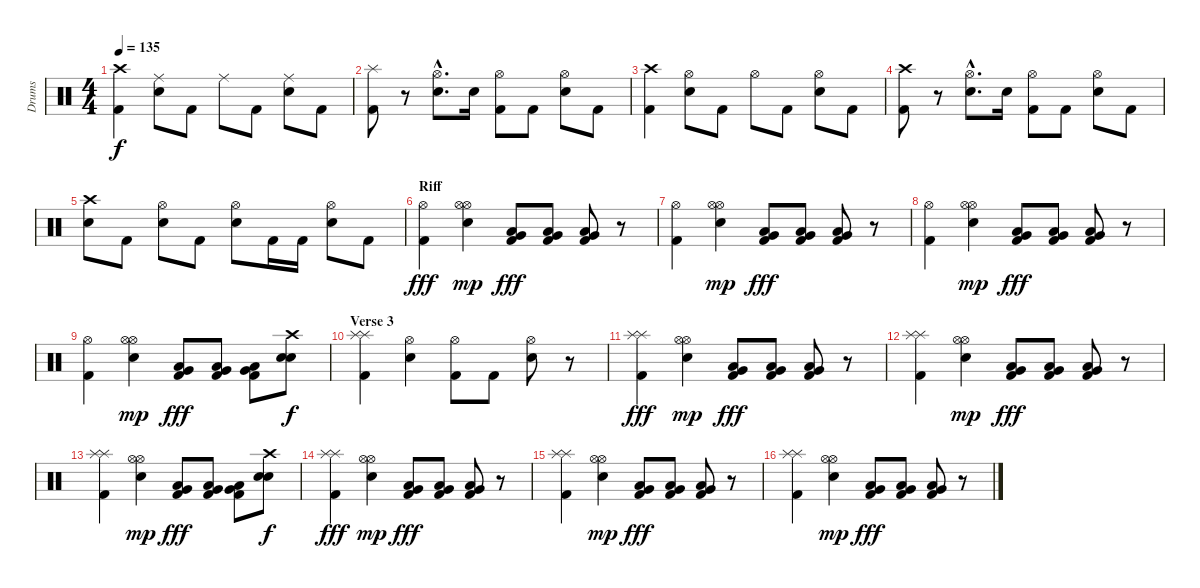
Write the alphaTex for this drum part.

\track ("Drums" "Drums") {instrument percussion}
\staff {score}
\articulation defaults
\ts (4 4)
\tempo 135
\clef neutral
\ks c
("Crash high (hit)" "Kick (hit) 2").4{dy f} ("Ride (middle)" "Electric Snare (hit)").8 "Kick (hit) 2".8 "Ride (middle)".8 "Kick (hit) 2".8 ("Ride (middle)" "Electric Snare (hit)").8 "Kick (hit) 2".8 |
("Splash (hit)" "Kick (hit) 2").8 r.8 ("Hi-Hat (open)"{hac} "Electric Snare (hit)"{hac}).8{d} "Electric Snare (hit)".16 ("Hi-Hat (open)" "Kick (hit) 2").8 "Kick (hit) 2".8 ("Hi-Hat (open)" "Electric Snare (hit)").8 "Kick (hit) 2".8 |
("Crash high (hit)" "Kick (hit) 2").4 ("Hi-Hat (open)" "Electric Snare (hit)").8 "Kick (hit) 2".8 "Hi-Hat (open)".8 "Kick (hit) 2".8 ("Hi-Hat (open)" "Electric Snare (hit)").8 "Kick (hit) 2".8 |
("Crash high (hit)" "Kick (hit) 2").8 r.8 ("Hi-Hat (open)"{hac} "Electric Snare (hit)"{hac}).8{d} "Electric Snare (hit)".16 ("Hi-Hat (open)" "Kick (hit) 2").8 "Kick (hit) 2".8 ("Hi-Hat (open)" "Electric Snare (hit)").8 "Kick (hit) 2".8 |
("Crash high (hit)" "Electric Snare (hit)").8 "Kick (hit) 2".8 ("Hi-Hat (open)" "Electric Snare (hit)").8 "Kick (hit) 2".8 ("Hi-Hat (open)" "Electric Snare (hit)").8 "Kick (hit) 2".16 "Kick (hit) 2".16 ("Hi-Hat (open)" "Electric Snare (hit)").8 "Kick (hit) 2".8 |
\section ("" "Riff")
("Kick (hit) 2" "Hi-Hat (open)").4{dy fff} ("Electric Snare (hit)" "Hi-Hat (open)" "Hi-Hat (open)").4{dy mp} ("Kick (hit) 2" "Very Low Tom (hit)" "Low Tom (hit)").8{dy fff} ("Kick (hit) 2" "Very Low Tom (hit)" "Low Tom (hit)").8 ("Kick (hit) 2" "Very Low Tom (hit)" "Low Tom (hit)").8 r.8 |
("Kick (hit) 2" "Hi-Hat (open)").4 ("Electric Snare (hit)" "Hi-Hat (open)" "Hi-Hat (open)").4{dy mp} ("Kick (hit) 2" "Very Low Tom (hit)" "Low Tom (hit)").8{dy fff} ("Kick (hit) 2" "Very Low Tom (hit)" "Low Tom (hit)").8 ("Kick (hit) 2" "Very Low Tom (hit)" "Low Tom (hit)").8 r.8 |
("Kick (hit) 2" "Hi-Hat (open)").4 ("Electric Snare (hit)" "Hi-Hat (open)" "Hi-Hat (open)").4{dy mp} ("Kick (hit) 2" "Very Low Tom (hit)" "Low Tom (hit)").8{dy fff} ("Kick (hit) 2" "Very Low Tom (hit)" "Low Tom (hit)").8 ("Kick (hit) 2" "Very Low Tom (hit)" "Low Tom (hit)").8 r.8 |
("Kick (hit) 2" "Hi-Hat (open)").4 ("Electric Snare (hit)" "Hi-Hat (open)" "Hi-Hat (open)").4{dy mp} ("Kick (hit) 2" "Very Low Tom (hit)" "Low Tom (hit)").8{dy fff} ("Kick (hit) 2" "Very Low Tom (hit)" "Low Tom (hit)").8 ("Kick (hit) 2" "Very Low Tom (hit)" "Low Tom (hit)").8 ("Crash high (hit)" "Electric Snare (hit)" "Electric Snare (hit)").8{dy f} |
\section ("" "Verse 3")
("Splash (hit)" "Splash (hit)" "Kick (hit) 2").4 ("Hi-Hat (open)" "Electric Snare (hit)").4 ("Hi-Hat (open)" "Kick (hit) 2").8 "Kick (hit) 2".8 ("Hi-Hat (open)" "Snare (hit) 2").8 r.8 |
("Kick (hit) 2" "Splash (hit)" "Splash (hit)").4{dy fff} ("Snare (hit) 2" "Hi-Hat (open)" "Hi-Hat (open)").4{dy mp} ("Kick (hit) 2" "Very Low Tom (hit)" "Low Tom (hit)").8{dy fff} ("Kick (hit) 2" "Very Low Tom (hit)" "Low Tom (hit)").8 ("Kick (hit) 2" "Very Low Tom (hit)" "Low Tom (hit)").8 r.8 |
("Kick (hit) 2" "Splash (hit)" "Splash (hit)").4 ("Snare (hit) 2" "Hi-Hat (open)" "Hi-Hat (open)").4{dy mp} ("Kick (hit) 2" "Very Low Tom (hit)" "Low Tom (hit)").8{dy fff} ("Kick (hit) 2" "Very Low Tom (hit)" "Low Tom (hit)").8 ("Kick (hit) 2" "Very Low Tom (hit)" "Low Tom (hit)").8 r.8 |
("Kick (hit) 2" "Splash (hit)" "Splash (hit)").4 ("Snare (hit) 2" "Hi-Hat (open)" "Hi-Hat (open)").4{dy mp} ("Kick (hit) 2" "Very Low Tom (hit)" "Low Tom (hit)").8{dy fff} ("Kick (hit) 2" "Very Low Tom (hit)" "Low Tom (hit)").8 ("Kick (hit) 2" "Very Low Tom (hit)" "Low Tom (hit)").8 ("Crash high (hit)" "Electric Snare (hit)" "Electric Snare (hit)").8{dy f} |
("Kick (hit) 2" "Splash (hit)" "Splash (hit)").4{dy fff} ("Snare (hit) 2" "Hi-Hat (open)" "Hi-Hat (open)").4{dy mp} ("Kick (hit) 2" "Very Low Tom (hit)" "Low Tom (hit)").8{dy fff} ("Kick (hit) 2" "Very Low Tom (hit)" "Low Tom (hit)").8 ("Kick (hit) 2" "Very Low Tom (hit)" "Low Tom (hit)").8 r.8 |
("Kick (hit) 2" "Splash (hit)" "Splash (hit)").4 ("Snare (hit) 2" "Hi-Hat (open)" "Hi-Hat (open)").4{dy mp} ("Kick (hit) 2" "Very Low Tom (hit)" "Low Tom (hit)").8{dy fff} ("Kick (hit) 2" "Very Low Tom (hit)" "Low Tom (hit)").8 ("Kick (hit) 2" "Very Low Tom (hit)" "Low Tom (hit)").8 r.8 |
("Kick (hit) 2" "Splash (hit)" "Splash (hit)").4 ("Snare (hit) 2" "Hi-Hat (open)" "Hi-Hat (open)").4{dy mp} ("Kick (hit) 2" "Very Low Tom (hit)" "Low Tom (hit)").8{dy fff} ("Kick (hit) 2" "Very Low Tom (hit)" "Low Tom (hit)").8 ("Kick (hit) 2" "Very Low Tom (hit)" "Low Tom (hit)").8 r.8
